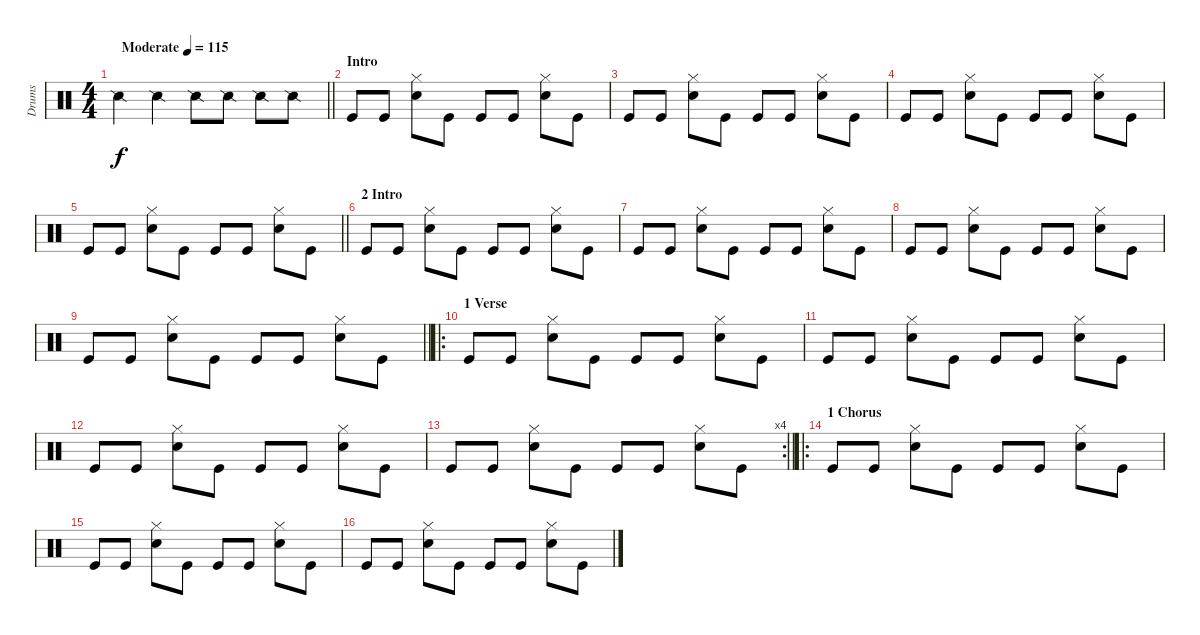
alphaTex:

\track ("Drums" "Drums") {instrument percussion}
\staff
\articulation defaults
\ts (4 4)
\tempo (115 "Moderate")
\clef neutral
\barLineRight lightlight
\ks c "Snare (side stick) 2".4{dy f} "Snare (side stick) 2".4 "Snare (side stick) 2".8 "Snare (side stick) 2".8 "Snare (side stick) 2".8 "Snare (side stick) 2".8
|
\section ("" "Intro")
"Kick (hit)".8 "Kick (hit)".8 ("Hi-Hat (closed)" "Snare (hit) 2").8 "Kick (hit)".8 "Kick (hit)".8 "Kick (hit)".8 ("Hi-Hat (closed)" "Snare (hit) 2").8 "Kick (hit)".8 |
"Kick (hit)".8 "Kick (hit)".8 ("Hi-Hat (closed)" "Snare (hit) 2").8 "Kick (hit)".8 "Kick (hit)".8 "Kick (hit)".8 ("Hi-Hat (closed)" "Snare (hit) 2").8 "Kick (hit)".8 |
"Kick (hit)".8 "Kick (hit)".8 ("Hi-Hat (closed)" "Snare (hit) 2").8 "Kick (hit)".8 "Kick (hit)".8 "Kick (hit)".8 ("Hi-Hat (closed)" "Snare (hit) 2").8 "Kick (hit)".8 |
\barLineRight lightlight "Kick (hit)".8 "Kick (hit)".8
("Hi-Hat (closed)" "Snare (hit) 2").8 "Kick (hit)".8 "Kick (hit)".8 "Kick (hit)".8 ("Hi-Hat (closed)" "Snare (hit) 2").8 "Kick (hit)".8 |
\section ("" "2 Intro")
"Kick (hit)".8 "Kick (hit)".8 ("Hi-Hat (closed)" "Snare (hit) 2").8 "Kick (hit)".8 "Kick (hit)".8 "Kick (hit)".8 ("Hi-Hat (closed)" "Snare (hit) 2").8 "Kick (hit)".8 |
"Kick (hit)".8 "Kick (hit)".8 ("Hi-Hat (closed)" "Snare (hit) 2").8 "Kick (hit)".8 "Kick (hit)".8 "Kick (hit)".8 ("Hi-Hat (closed)" "Snare (hit) 2").8 "Kick (hit)".8 |
"Kick (hit)".8 "Kick (hit)".8 ("Hi-Hat (closed)" "Snare (hit) 2").8 "Kick (hit)".8 "Kick (hit)".8 "Kick (hit)".8 ("Hi-Hat (closed)" "Snare (hit) 2").8 "Kick (hit)".8 |
\barLineRight lightlight "Kick (hit)".8 "Kick (hit)".8
("Hi-Hat (closed)" "Snare (hit) 2").8 "Kick (hit)".8 "Kick (hit)".8 "Kick (hit)".8 ("Hi-Hat (closed)" "Snare (hit) 2").8 "Kick (hit)".8 |
\ro
\section ("" "1 Verse")
"Kick (hit)".8 "Kick (hit)".8 ("Hi-Hat (closed)" "Snare (hit) 2").8 "Kick (hit)".8 "Kick (hit)".8 "Kick (hit)".8 ("Hi-Hat (closed)" "Snare (hit) 2").8 "Kick (hit)".8 |
"Kick (hit)".8 "Kick (hit)".8 ("Hi-Hat (closed)" "Snare (hit) 2").8 "Kick (hit)".8 "Kick (hit)".8 "Kick (hit)".8 ("Hi-Hat (closed)" "Snare (hit) 2").8 "Kick (hit)".8 |
"Kick (hit)".8 "Kick (hit)".8 ("Hi-Hat (closed)" "Snare (hit) 2").8 "Kick (hit)".8 "Kick (hit)".8 "Kick (hit)".8 ("Hi-Hat (closed)" "Snare (hit) 2").8 "Kick (hit)".8 |
\rc 4
\barLineRight lightlight "Kick (hit)".8 "Kick (hit)".8
("Hi-Hat (closed)" "Snare (hit) 2").8 "Kick (hit)".8 "Kick (hit)".8 "Kick (hit)".8 ("Hi-Hat (closed)" "Snare (hit) 2").8 "Kick (hit)".8 |
\ro
\section ("" "1 Chorus")
"Kick (hit)".8 "Kick (hit)".8 ("Hi-Hat (closed)" "Snare (hit) 2").8 "Kick (hit)".8 "Kick (hit)".8 "Kick (hit)".8 ("Hi-Hat (closed)" "Snare (hit) 2").8 "Kick (hit)".8 |
"Kick (hit)".8 "Kick (hit)".8 ("Hi-Hat (closed)" "Snare (hit) 2").8 "Kick (hit)".8 "Kick (hit)".8 "Kick (hit)".8 ("Hi-Hat (closed)" "Snare (hit) 2").8 "Kick (hit)".8 |
"Kick (hit)".8 "Kick (hit)".8 ("Hi-Hat (closed)" "Snare (hit) 2").8 "Kick (hit)".8 "Kick (hit)".8 "Kick (hit)".8 ("Hi-Hat (closed)" "Snare (hit) 2").8 "Kick (hit)".8
